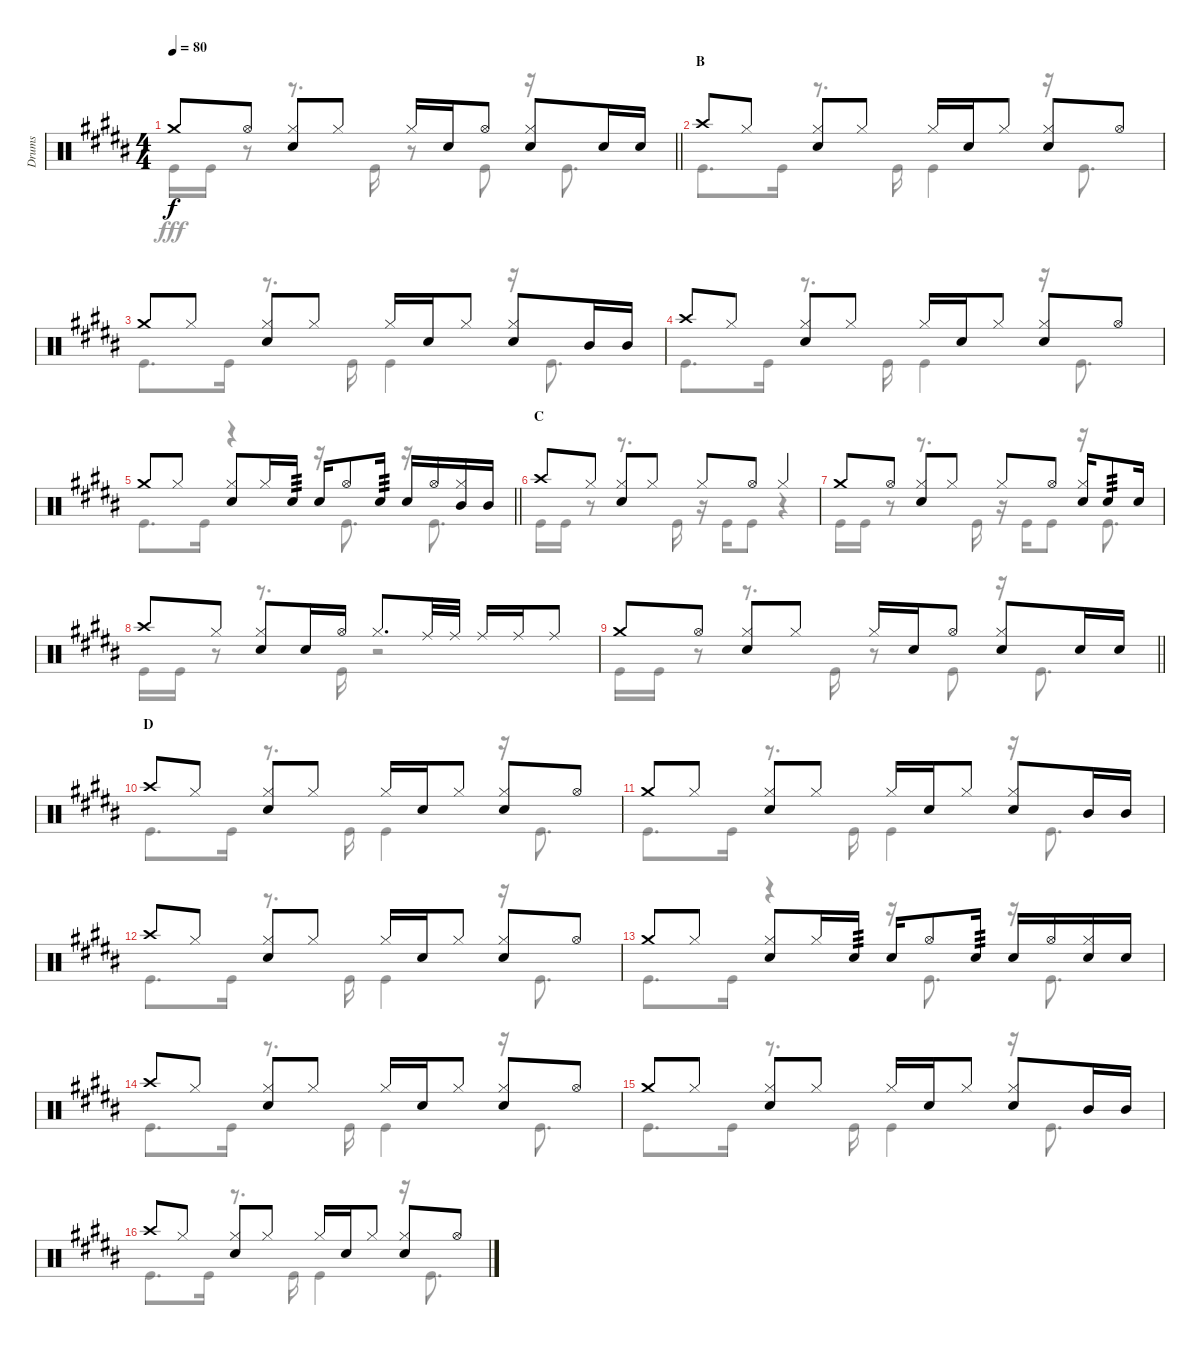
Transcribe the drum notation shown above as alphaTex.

\track ("Drums" "Drums") {instrument percussion}
\staff {score}
\articulation defaults
\voice
\ts (4 4)
\tempo 80
\clef neutral
\barLineRight lightlight
\ks b "Crash medium (hit)".8{dy f} "Hi-Hat (open)".8
("Hi-Hat (closed)" "Snare (hit) 2").8 "Hi-Hat (closed)".8 "Hi-Hat (closed)".16 "Snare (hit) 2".16 "Hi-Hat (open)".8 ("Hi-Hat (closed)" "Snare (hit) 2").8 "Snare (hit) 2".16 "Snare (hit) 2".16 |
\section ("" "B")
"Crash high (hit)".8 "Hi-Hat (closed)".8 ("Hi-Hat (closed)" "Snare (hit) 2").8 "Hi-Hat (closed)".8 "Hi-Hat (closed)".16 "Snare (hit) 2".16 "Hi-Hat (closed)".8 ("Hi-Hat (closed)" "Snare (hit) 2").8 "Hi-Hat (open)".8 |
"Crash medium (hit)".8 "Hi-Hat (closed)".8 ("Hi-Hat (closed)" "Snare (hit) 2").8 "Hi-Hat (closed)".8 "Hi-Hat (closed)".16 "Snare (hit) 2".16 "Hi-Hat (closed)".8 ("Hi-Hat (closed)" "Snare (hit) 2").8 "Mid Tom (hit)".16 "Mid Tom (hit)".16 |
"Crash high (hit)".8 "Hi-Hat (closed)".8 ("Hi-Hat (closed)" "Snare (hit) 2").8 "Hi-Hat (closed)".8 "Hi-Hat (closed)".16 "Snare (hit) 2".16 "Hi-Hat (closed)".8 ("Hi-Hat (closed)" "Snare (hit) 2").8 "Hi-Hat (open)".8 |
\barLineRight lightlight "Crash medium (hit)".8 "Hi-Hat (closed)".8
("Hi-Hat (closed)" "Snare (hit) 2").8 "Hi-Hat (closed)".16 "Snare (hit) 2".16{tp 3} "Snare (hit) 2".16 "Hi-Hat (open)".8 "Snare (hit) 2".16{tp 3} "Snare (hit) 2".16 "Hi-Hat (open)".16 ("Hi-Hat (closed)" "Mid Tom (hit)").16 "Mid Tom (hit)".16 |
\section ("" "C")
"Crash high (hit)".8 "Hi-Hat (closed)".8 ("Hi-Hat (closed)" "Snare (hit) 2").8 "Hi-Hat (closed)".8 "Hi-Hat (closed)".8 "Hi-Hat (open)".8 "Hi-Hat (closed)".4 |
"Crash medium (hit)".8 "Hi-Hat (open)".8 ("Hi-Hat (closed)" "Snare (hit) 2").8 "Hi-Hat (closed)".8 "Hi-Hat (closed)".8 "Hi-Hat (open)".8 ("Hi-Hat (closed)" "Snare (hit) 2").16 "Snare (hit) 2".8{tp 3} "Snare (hit) 2".16 |
"Crash high (hit)".8 "Hi-Hat (closed)".8 ("Hi-Hat (closed)" "Snare (hit) 2").8 "Snare (hit) 2".16 "Hi-Hat (open)".16 "Hi-Hat (closed)".8{d} "Ride (middle)".32 "Ride (middle)".32 "Ride (middle)".16 "Ride (middle)".16 "Ride (middle)".8 |
\barLineRight lightlight "Crash medium (hit)".8 "Hi-Hat (open)".8
("Hi-Hat (closed)" "Snare (hit) 2").8 "Hi-Hat (closed)".8 "Hi-Hat (closed)".16 "Snare (hit) 2".16 "Hi-Hat (open)".8 ("Hi-Hat (closed)" "Snare (hit) 2").8 "Snare (hit) 2".16 "Snare (hit) 2".16 |
\section ("" "D")
"Crash high (hit)".8 "Hi-Hat (closed)".8 ("Hi-Hat (closed)" "Snare (hit) 2").8 "Hi-Hat (closed)".8 "Hi-Hat (closed)".16 "Snare (hit) 2".16 "Hi-Hat (closed)".8 ("Hi-Hat (closed)" "Snare (hit) 2").8 "Hi-Hat (open)".8 |
"Crash medium (hit)".8 "Hi-Hat (closed)".8 ("Hi-Hat (closed)" "Snare (hit) 2").8 "Hi-Hat (closed)".8 "Hi-Hat (closed)".16 "Snare (hit) 2".16 "Hi-Hat (closed)".8 ("Hi-Hat (closed)" "Snare (hit) 2").8 "Mid Tom (hit)".16 "Mid Tom (hit)".16 |
"Crash high (hit)".8 "Hi-Hat (closed)".8 ("Hi-Hat (closed)" "Snare (hit) 2").8 "Hi-Hat (closed)".8 "Hi-Hat (closed)".16 "Snare (hit) 2".16 "Hi-Hat (closed)".8 ("Hi-Hat (closed)" "Snare (hit) 2").8 "Hi-Hat (open)".8 |
"Crash medium (hit)".8 "Hi-Hat (closed)".8 ("Hi-Hat (closed)" "Snare (hit) 2").8 "Hi-Hat (closed)".16 "Snare (hit) 2".16{tp 3} "Snare (hit) 2".16 "Hi-Hat (open)".8 "Snare (hit) 2".16{tp 3} "Snare (hit) 2".16 "Hi-Hat (open)".16 ("Hi-Hat (closed)" "Snare (hit) 2").16 "Snare (hit) 2".16 |
"Crash high (hit)".8 "Hi-Hat (closed)".8 ("Hi-Hat (closed)" "Snare (hit) 2").8 "Hi-Hat (closed)".8 "Hi-Hat (closed)".16 "Snare (hit) 2".16 "Hi-Hat (closed)".8 ("Hi-Hat (closed)" "Snare (hit) 2").8 "Hi-Hat (open)".8 |
"Crash medium (hit)".8 "Hi-Hat (closed)".8 ("Hi-Hat (closed)" "Snare (hit) 2").8 "Hi-Hat (closed)".8 "Hi-Hat (closed)".16 "Snare (hit) 2".16 "Hi-Hat (closed)".8 ("Hi-Hat (closed)" "Snare (hit) 2").8 "Mid Tom (hit)".16 "Mid Tom (hit)".16 |
"Crash high (hit)".8 "Hi-Hat (closed)".8 ("Hi-Hat (closed)" "Snare (hit) 2").8 "Hi-Hat (closed)".8 "Hi-Hat (closed)".16 "Snare (hit) 2".16 "Hi-Hat (closed)".8 ("Hi-Hat (closed)" "Snare (hit) 2").8 "Hi-Hat (open)".8
\voice
\clef neutral
\ottava regular
\simile none
\barLineRight lightlight
\ks b "Kick (hit)".16{dy fff} "Kick (hit)".16
r.8 r.8{d} "Kick (hit)".16 r.8 "Kick (hit)".8 r.16 "Kick (hit)".8{d} |
"Kick (hit)".8{d} "Kick (hit)".16 r.8{d} "Kick (hit)".16 "Kick (hit)".4 r.16 "Kick (hit)".8{d} |
"Kick (hit)".8{d} "Kick (hit)".16 r.8{d} "Kick (hit)".16 "Kick (hit)".4 r.16 "Kick (hit)".8{d} |
"Kick (hit)".8{d} "Kick (hit)".16 r.8{d} "Kick (hit)".16 "Kick (hit)".4 r.16 "Kick (hit)".8{d} |
\barLineRight lightlight "Kick (hit)".8{d} "Kick (hit)".16
r.4 r.16 "Kick (hit)".8{d} r.16 "Kick (hit)".8{d} |
"Kick (hit)".16 "Kick (hit)".16 r.8 r.8{d} "Kick (hit)".16 r.16 "Kick (hit)".16 "Kick (hit)".8 r.4 |
"Kick (hit)".16 "Kick (hit)".16 r.8 r.8{d} "Kick (hit)".16 r.16 "Kick (hit)".16 "Kick (hit)".8 r.16 "Kick (hit)".8{d} |
"Kick (hit)".16 "Kick (hit)".16 r.8 r.8{d} "Kick (hit)".16 r.2 |
\barLineRight lightlight "Kick (hit)".16 "Kick (hit)".16
r.8 r.8{d} "Kick (hit)".16 r.8 "Kick (hit)".8 r.16 "Kick (hit)".8{d} |
"Kick (hit)".8{d} "Kick (hit)".16 r.8{d} "Kick (hit)".16 "Kick (hit)".4 r.16 "Kick (hit)".8{d} |
"Kick (hit)".8{d} "Kick (hit)".16 r.8{d} "Kick (hit)".16 "Kick (hit)".4 r.16 "Kick (hit)".8{d} |
"Kick (hit)".8{d} "Kick (hit)".16 r.8{d} "Kick (hit)".16 "Kick (hit)".4 r.16 "Kick (hit)".8{d} |
"Kick (hit)".8{d} "Kick (hit)".16 r.4 r.16 "Kick (hit)".8{d} r.16 "Kick (hit)".8{d} |
"Kick (hit)".8{d} "Kick (hit)".16 r.8{d} "Kick (hit)".16 "Kick (hit)".4 r.16 "Kick (hit)".8{d} |
"Kick (hit)".8{d} "Kick (hit)".16 r.8{d} "Kick (hit)".16 "Kick (hit)".4 r.16 "Kick (hit)".8{d} |
"Kick (hit)".8{d} "Kick (hit)".16 r.8{d} "Kick (hit)".16 "Kick (hit)".4 r.16 "Kick (hit)".8{d}
